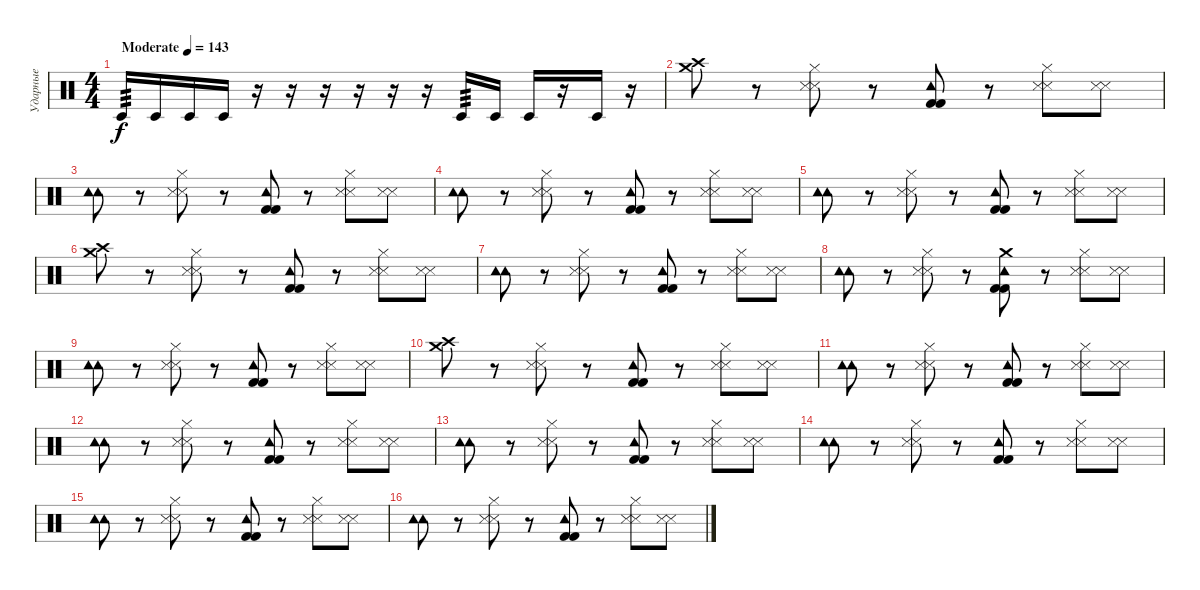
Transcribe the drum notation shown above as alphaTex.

\track ("Ударные" "Ударные") {instrument percussion}
\staff {score}
\articulation defaults
\ts (4 4)
\tempo (143 "Moderate")
\clef neutral
\ks c "Timbale low (hit)".16{tp 3 dy f} "Timbale low (hit)".16 "Timbale low (hit)".16 "Timbale low (hit)".16
r.16 r.16 r.16 r.16 r.16 r.16 "Timbale low (hit)".16{tp 3} "Timbale low (hit)".16 "Timbale low (hit)".16 r.16 "Timbale low (hit)".16 r.16 |
("Crash high (hit)" "Crash medium (hit)").8 r.8 ("Hi-Hat (closed)" "Metronome (hit)" "Metronome (hit)").8 r.8 ("Tambourine (hit)" "Kick (hit) 2" "Kick (hit) 2").8 r.8 ("Hi-Hat (closed)" "Metronome (hit)" "Metronome (hit)").8 ("Metronome (hit)" "Metronome (hit)").8 |
("Tambourine (hit)" "Tambourine (hit)").8 r.8 ("Hi-Hat (closed)" "Metronome (hit)" "Metronome (hit)").8 r.8 ("Tambourine (hit)" "Kick (hit) 2" "Kick (hit) 2").8 r.8 ("Hi-Hat (closed)" "Metronome (hit)" "Metronome (hit)").8 ("Metronome (hit)" "Metronome (hit)").8 |
("Tambourine (hit)" "Tambourine (hit)").8 r.8 ("Hi-Hat (closed)" "Metronome (hit)" "Metronome (hit)").8 r.8 ("Tambourine (hit)" "Kick (hit) 2" "Kick (hit) 2").8 r.8 ("Hi-Hat (closed)" "Metronome (hit)" "Metronome (hit)").8 ("Metronome (hit)" "Metronome (hit)").8 |
("Tambourine (hit)" "Tambourine (hit)").8 r.8 ("Hi-Hat (closed)" "Metronome (hit)" "Metronome (hit)").8 r.8 ("Tambourine (hit)" "Kick (hit) 2" "Kick (hit) 2").8 r.8 ("Hi-Hat (closed)" "Metronome (hit)" "Metronome (hit)").8 ("Metronome (hit)" "Metronome (hit)").8 |
("Crash medium (hit)" "Crash high (hit)").8 r.8 ("Hi-Hat (closed)" "Metronome (hit)" "Metronome (hit)").8 r.8 ("Tambourine (hit)" "Kick (hit) 2" "Kick (hit) 2").8 r.8 ("Hi-Hat (closed)" "Metronome (hit)" "Metronome (hit)").8 ("Metronome (hit)" "Metronome (hit)").8 |
("Tambourine (hit)" "Tambourine (hit)").8 r.8 ("Hi-Hat (closed)" "Metronome (hit)" "Metronome (hit)").8 r.8 ("Tambourine (hit)" "Kick (hit) 2" "Kick (hit) 2").8 r.8 ("Hi-Hat (closed)" "Metronome (hit)" "Metronome (hit)").8 ("Metronome (hit)" "Metronome (hit)").8 |
("Tambourine (hit)" "Tambourine (hit)").8 r.8 ("Hi-Hat (closed)" "Metronome (hit)" "Metronome (hit)").8 r.8 ("Crash medium (hit)" "Tambourine (hit)" "Kick (hit) 2" "Kick (hit) 2").8 r.8 ("Hi-Hat (closed)" "Metronome (hit)" "Metronome (hit)").8 ("Metronome (hit)" "Metronome (hit)").8 |
("Tambourine (hit)" "Tambourine (hit)").8 r.8 ("Hi-Hat (closed)" "Metronome (hit)" "Metronome (hit)").8 r.8 ("Tambourine (hit)" "Kick (hit) 2" "Kick (hit) 2").8 r.8 ("Hi-Hat (closed)" "Metronome (hit)" "Metronome (hit)").8 ("Metronome (hit)" "Metronome (hit)").8 |
("Crash medium (hit)" "Crash high (hit)").8 r.8 ("Hi-Hat (closed)" "Metronome (hit)" "Metronome (hit)").8 r.8 ("Tambourine (hit)" "Kick (hit) 2" "Kick (hit) 2").8 r.8 ("Hi-Hat (closed)" "Metronome (hit)" "Metronome (hit)").8 ("Metronome (hit)" "Metronome (hit)").8 |
("Tambourine (hit)" "Tambourine (hit)").8 r.8 ("Hi-Hat (closed)" "Metronome (hit)" "Metronome (hit)").8 r.8 ("Tambourine (hit)" "Kick (hit) 2" "Kick (hit) 2").8 r.8 ("Hi-Hat (closed)" "Metronome (hit)" "Metronome (hit)").8 ("Metronome (hit)" "Metronome (hit)").8 |
("Tambourine (hit)" "Tambourine (hit)").8 r.8 ("Hi-Hat (closed)" "Metronome (hit)" "Metronome (hit)").8 r.8 ("Tambourine (hit)" "Kick (hit) 2" "Kick (hit) 2").8 r.8 ("Hi-Hat (closed)" "Metronome (hit)" "Metronome (hit)").8 ("Metronome (hit)" "Metronome (hit)").8 |
("Tambourine (hit)" "Tambourine (hit)").8 r.8 ("Hi-Hat (closed)" "Metronome (hit)" "Metronome (hit)").8 r.8 ("Tambourine (hit)" "Kick (hit) 2" "Kick (hit) 2").8 r.8 ("Hi-Hat (closed)" "Metronome (hit)" "Metronome (hit)").8 ("Metronome (hit)" "Metronome (hit)").8 |
("Tambourine (hit)" "Tambourine (hit)").8 r.8 ("Hi-Hat (closed)" "Metronome (hit)" "Metronome (hit)").8 r.8 ("Tambourine (hit)" "Kick (hit) 2" "Kick (hit) 2").8 r.8 ("Hi-Hat (closed)" "Metronome (hit)" "Metronome (hit)").8 ("Metronome (hit)" "Metronome (hit)").8 |
("Tambourine (hit)" "Tambourine (hit)").8 r.8 ("Hi-Hat (closed)" "Metronome (hit)" "Metronome (hit)").8 r.8 ("Tambourine (hit)" "Kick (hit) 2" "Kick (hit) 2").8 r.8 ("Hi-Hat (closed)" "Metronome (hit)" "Metronome (hit)").8 ("Metronome (hit)" "Metronome (hit)").8 |
("Tambourine (hit)" "Tambourine (hit)").8 r.8 ("Hi-Hat (closed)" "Metronome (hit)" "Metronome (hit)").8 r.8 ("Tambourine (hit)" "Kick (hit) 2" "Kick (hit) 2").8 r.8 ("Hi-Hat (closed)" "Metronome (hit)" "Metronome (hit)").8 ("Metronome (hit)" "Metronome (hit)").8
